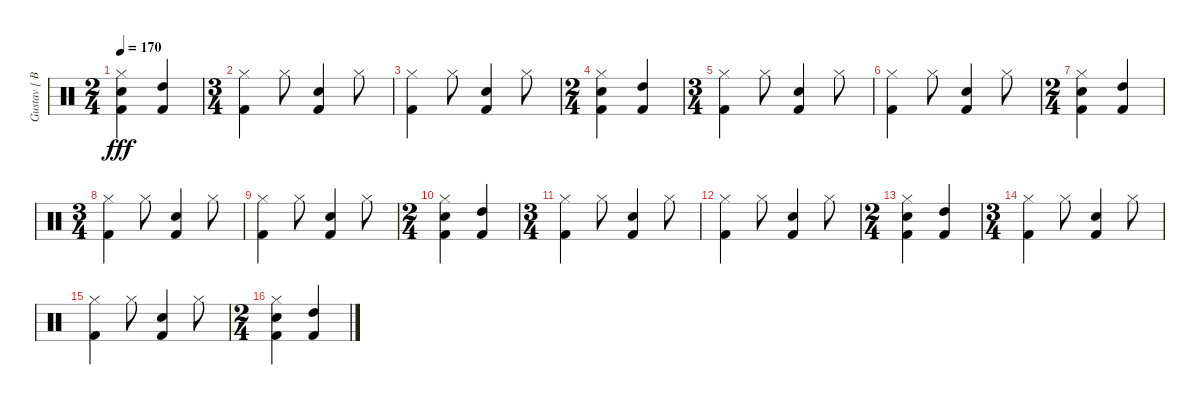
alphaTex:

\track ("Gustav [ Batterie ]" "Gustav [ B") {instrument percussion}
\staff {score}
\articulation defaults
\ts (2 4)
\tempo 170
\clef neutral
\ks c
("Hi-Hat (closed)" "Snare (hit) 2" "Kick (hit) 2").4{dy fff} ("High Tom (hit)" "Kick (hit) 2").4 |
\ts (3 4)
("Hi-Hat (closed)" "Kick (hit) 2").4 "Hi-Hat (closed)".8 ("Snare (hit) 2" "Kick (hit) 2").4 "Hi-Hat (closed)".8 |
("Hi-Hat (closed)" "Kick (hit) 2").4 "Hi-Hat (closed)".8 ("Snare (hit) 2" "Kick (hit) 2").4 "Hi-Hat (closed)".8 |
\ts (2 4)
("Hi-Hat (closed)" "Snare (hit) 2" "Kick (hit) 2").4 ("High Tom (hit)" "Kick (hit) 2").4 |
\ts (3 4)
("Hi-Hat (closed)" "Kick (hit) 2").4 "Hi-Hat (closed)".8 ("Snare (hit) 2" "Kick (hit) 2").4 "Hi-Hat (closed)".8 |
("Hi-Hat (closed)" "Kick (hit) 2").4 "Hi-Hat (closed)".8 ("Snare (hit) 2" "Kick (hit) 2").4 "Hi-Hat (closed)".8 |
\ts (2 4)
("Hi-Hat (closed)" "Snare (hit) 2" "Kick (hit) 2").4 ("High Tom (hit)" "Kick (hit) 2").4 |
\ts (3 4)
("Hi-Hat (closed)" "Kick (hit) 2").4 "Hi-Hat (closed)".8 ("Snare (hit) 2" "Kick (hit) 2").4 "Hi-Hat (closed)".8 |
("Hi-Hat (closed)" "Kick (hit) 2").4 "Hi-Hat (closed)".8 ("Snare (hit) 2" "Kick (hit) 2").4 "Hi-Hat (closed)".8 |
\ts (2 4)
("Hi-Hat (closed)" "Snare (hit) 2" "Kick (hit) 2").4{volume 14} ("High Tom (hit)" "Kick (hit) 2").4 |
\ts (3 4)
("Hi-Hat (closed)" "Kick (hit) 2").4 "Hi-Hat (closed)".8 ("Snare (hit) 2" "Kick (hit) 2").4 "Hi-Hat (closed)".8 |
("Hi-Hat (closed)" "Kick (hit) 2").4 "Hi-Hat (closed)".8 ("Snare (hit) 2" "Kick (hit) 2").4 "Hi-Hat (closed)".8 |
\ts (2 4)
("Hi-Hat (closed)" "Snare (hit) 2" "Kick (hit) 2").4 ("High Tom (hit)" "Kick (hit) 2").4 |
\ts (3 4)
("Hi-Hat (closed)" "Kick (hit) 2").4 "Hi-Hat (closed)".8 ("Snare (hit) 2" "Kick (hit) 2").4 "Hi-Hat (closed)".8 |
("Hi-Hat (closed)" "Kick (hit) 2").4 "Hi-Hat (closed)".8 ("Snare (hit) 2" "Kick (hit) 2").4 "Hi-Hat (closed)".8 |
\ts (2 4)
("Hi-Hat (closed)" "Snare (hit) 2" "Kick (hit) 2").4 ("High Tom (hit)" "Kick (hit) 2").4
